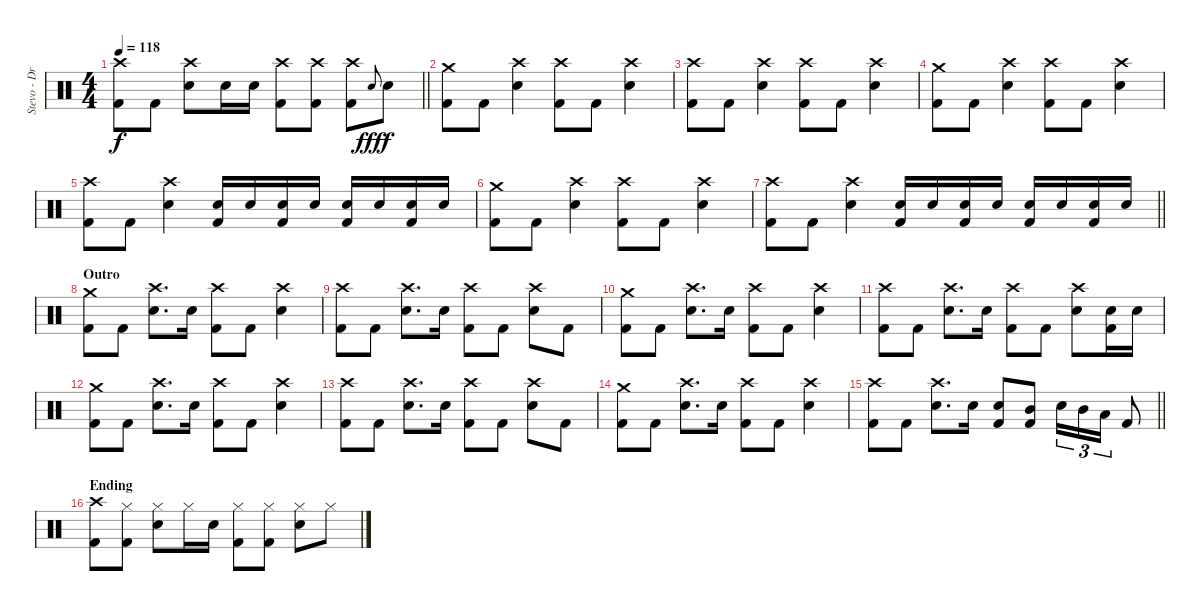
\track ("Stevo - Drums" "Stevo - Dr") {instrument percussion}
\staff {score}
\articulation defaults
\ts (4 4)
\tempo 118
\clef neutral
\barLineRight lightlight
\ks c
("Crash high (hit)" "Kick (hit) 2").8{dy f} "Kick (hit) 2".8 ("Crash high (hit)" "Snare (hit) 2").8 "Snare (hit) 2".16 "Snare (hit) 2".16 ("Crash high (hit)" "Kick (hit) 2").8 ("Crash high (hit)" "Kick (hit) 2").8 ("Crash high (hit)" "Kick (hit) 2").8 "Snare (hit) 2".8{gr onbeat dy fff} "Snare (hit) 2".8{dy f} |
("Crash medium (hit)" "Kick (hit) 2").8 "Kick (hit) 2".8 ("Crash high (hit)" "Snare (hit) 2").4 ("Crash high (hit)" "Kick (hit) 2").8 "Kick (hit) 2".8 ("Crash high (hit)" "Snare (hit) 2").4 |
("Crash high (hit)" "Kick (hit) 2").8 "Kick (hit) 2".8 ("Crash high (hit)" "Snare (hit) 2").4 ("Crash high (hit)" "Kick (hit) 2").8 "Kick (hit) 2".8 ("Crash high (hit)" "Snare (hit) 2").4 |
("Crash medium (hit)" "Kick (hit) 2").8 "Kick (hit) 2".8 ("Crash high (hit)" "Snare (hit) 2").4 ("Crash high (hit)" "Kick (hit) 2").8 "Kick (hit) 2".8 ("Crash high (hit)" "Snare (hit) 2").4 |
("Crash high (hit)" "Kick (hit) 2").8 "Kick (hit) 2".8 ("Crash high (hit)" "Snare (hit) 2").4 ("Snare (hit) 2" "Kick (hit) 2").16 "Snare (hit) 2".16 ("Snare (hit) 2" "Kick (hit) 2").16 "Snare (hit) 2".16 ("Snare (hit) 2" "Kick (hit) 2").16 "Snare (hit) 2".16 ("Snare (hit) 2" "Kick (hit) 2").16 "Snare (hit) 2".16 |
("Crash medium (hit)" "Kick (hit) 2").8 "Kick (hit) 2".8 ("Crash high (hit)" "Snare (hit) 2").4 ("Crash high (hit)" "Kick (hit) 2").8 "Kick (hit) 2".8 ("Crash high (hit)" "Snare (hit) 2").4 |
\barLineRight lightlight
("Crash high (hit)" "Kick (hit) 2").8 "Kick (hit) 2".8 ("Crash high (hit)" "Snare (hit) 2").4 ("Snare (hit) 2" "Kick (hit) 2").16 "Snare (hit) 2".16 ("Snare (hit) 2" "Kick (hit) 2").16 "Snare (hit) 2".16 ("Snare (hit) 2" "Kick (hit) 2").16 "Snare (hit) 2".16 ("Snare (hit) 2" "Kick (hit) 2").16 "Snare (hit) 2".16 |
\section ("" "Outro")
("Crash medium (hit)" "Kick (hit) 2").8 "Kick (hit) 2".8 ("Crash high (hit)" "Snare (hit) 2").8{d} "Snare (hit) 2".16 ("Crash high (hit)" "Kick (hit) 2").8 "Kick (hit) 2".8 ("Crash high (hit)" "Snare (hit) 2").4 |
("Crash high (hit)" "Kick (hit) 2").8 "Kick (hit) 2".8 ("Crash high (hit)" "Snare (hit) 2").8{d} "Snare (hit) 2".16 ("Crash high (hit)" "Kick (hit) 2").8 "Kick (hit) 2".8 ("Crash high (hit)" "Snare (hit) 2").8 "Kick (hit) 2".8 |
("Crash medium (hit)" "Kick (hit) 2").8 "Kick (hit) 2".8 ("Crash high (hit)" "Snare (hit) 2").8{d} "Snare (hit) 2".16 ("Crash high (hit)" "Kick (hit) 2").8 "Kick (hit) 2".8 ("Crash high (hit)" "Snare (hit) 2").4 |
("Crash high (hit)" "Kick (hit) 2").8 "Kick (hit) 2".8 ("Crash high (hit)" "Snare (hit) 2").8{d} "Snare (hit) 2".16 ("Crash high (hit)" "Kick (hit) 2").8 "Kick (hit) 2".8 ("Crash high (hit)" "Snare (hit) 2").8 ("Snare (hit) 2" "Kick (hit) 2").16 "Snare (hit) 2".16 |
("Crash medium (hit)" "Kick (hit) 2").8 "Kick (hit) 2".8 ("Crash high (hit)" "Snare (hit) 2").8{d} "Snare (hit) 2".16 ("Crash high (hit)" "Kick (hit) 2").8 "Kick (hit) 2".8 ("Crash high (hit)" "Snare (hit) 2").4 |
("Crash high (hit)" "Kick (hit) 2").8 "Kick (hit) 2".8 ("Crash high (hit)" "Snare (hit) 2").8{d} "Snare (hit) 2".16 ("Crash high (hit)" "Kick (hit) 2").8 "Kick (hit) 2".8 ("Crash high (hit)" "Snare (hit) 2").8 "Kick (hit) 2".8 |
("Crash medium (hit)" "Kick (hit) 2").8 "Kick (hit) 2".8 ("Crash high (hit)" "Snare (hit) 2").8{d} "Snare (hit) 2".16 ("Crash high (hit)" "Kick (hit) 2").8 "Kick (hit) 2".8 ("Crash high (hit)" "Snare (hit) 2").4 |
\barLineRight lightlight
("Crash high (hit)" "Kick (hit) 2").8 "Kick (hit) 2".8 ("Crash high (hit)" "Snare (hit) 2").8{d} "Snare (hit) 2".16 ("Snare (hit) 2" "Kick (hit) 2").8 ("Mid Tom (hit)" "Kick (hit) 2").8 "Snare (hit) 2".16{tu (3 2)} "Mid Tom (hit)".16{tu (3 2)} "Low Tom (hit)".16{tu (3 2)} "Kick (hit) 2".8 |
\section ("" "Ending")
("Crash high (hit)" "Kick (hit) 2").8 ("Hi-Hat (closed)" "Kick (hit) 2").8 ("Hi-Hat (closed)" "Snare (hit) 2").8 "Hi-Hat (closed)".16 "Snare (hit) 2".16 ("Hi-Hat (closed)" "Kick (hit) 2").8 ("Hi-Hat (closed)" "Kick (hit) 2").8 ("Hi-Hat (closed)" "Snare (hit) 2").8 "Hi-Hat (closed)".8
